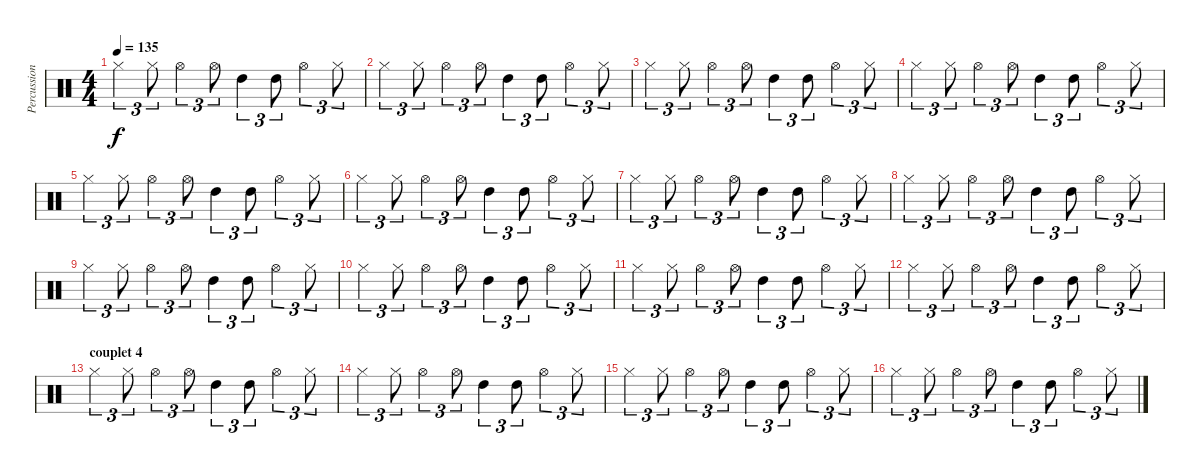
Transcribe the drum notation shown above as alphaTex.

\track ("Percussions" "Percussion") {instrument percussion}
\staff {score}
\articulation defaults
\ts (4 4)
\tempo 135
\clef neutral
\ks c "Hi-Hat (closed)".4{tu (3 2) dy f} "Hi-Hat (closed)".8{tu (3 2)} "Hi-Hat (open)".4{tu (3 2)} "Hi-Hat (open)".8{tu (3 2)} "High Tom (hit)".4{tu (3 2)} "High Tom (hit)".8{tu (3 2)} "Hi-Hat (open)".4{tu (3 2)} "Hi-Hat (closed)".8{tu (3 2)}
|
"Hi-Hat (closed)".4{tu (3 2)} "Hi-Hat (closed)".8{tu (3 2)} "Hi-Hat (open)".4{tu (3 2)} "Hi-Hat (open)".8{tu (3 2)} "High Tom (hit)".4{tu (3 2)} "High Tom (hit)".8{tu (3 2)} "Hi-Hat (open)".4{tu (3 2)} "Hi-Hat (closed)".8{tu (3 2)} |
"Hi-Hat (closed)".4{tu (3 2)} "Hi-Hat (closed)".8{tu (3 2)} "Hi-Hat (open)".4{tu (3 2)} "Hi-Hat (open)".8{tu (3 2)} "High Tom (hit)".4{tu (3 2)} "High Tom (hit)".8{tu (3 2)} "Hi-Hat (open)".4{tu (3 2)} "Hi-Hat (closed)".8{tu (3 2)} |
"Hi-Hat (closed)".4{tu (3 2)} "Hi-Hat (closed)".8{tu (3 2)} "Hi-Hat (open)".4{tu (3 2)} "Hi-Hat (open)".8{tu (3 2)} "High Tom (hit)".4{tu (3 2)} "High Tom (hit)".8{tu (3 2)} "Hi-Hat (open)".4{tu (3 2)} "Hi-Hat (closed)".8{tu (3 2)} |
"Hi-Hat (closed)".4{tu (3 2)} "Hi-Hat (closed)".8{tu (3 2)} "Hi-Hat (open)".4{tu (3 2)} "Hi-Hat (open)".8{tu (3 2)} "High Tom (hit)".4{tu (3 2)} "High Tom (hit)".8{tu (3 2)} "Hi-Hat (open)".4{tu (3 2)} "Hi-Hat (closed)".8{tu (3 2)} |
"Hi-Hat (closed)".4{tu (3 2)} "Hi-Hat (closed)".8{tu (3 2)} "Hi-Hat (open)".4{tu (3 2)} "Hi-Hat (open)".8{tu (3 2)} "High Tom (hit)".4{tu (3 2)} "High Tom (hit)".8{tu (3 2)} "Hi-Hat (open)".4{tu (3 2)} "Hi-Hat (closed)".8{tu (3 2)} |
"Hi-Hat (closed)".4{tu (3 2)} "Hi-Hat (closed)".8{tu (3 2)} "Hi-Hat (open)".4{tu (3 2)} "Hi-Hat (open)".8{tu (3 2)} "High Tom (hit)".4{tu (3 2)} "High Tom (hit)".8{tu (3 2)} "Hi-Hat (open)".4{tu (3 2)} "Hi-Hat (closed)".8{tu (3 2)} |
"Hi-Hat (closed)".4{tu (3 2)} "Hi-Hat (closed)".8{tu (3 2)} "Hi-Hat (open)".4{tu (3 2)} "Hi-Hat (open)".8{tu (3 2)} "High Tom (hit)".4{tu (3 2)} "High Tom (hit)".8{tu (3 2)} "Hi-Hat (open)".4{tu (3 2)} "Hi-Hat (closed)".8{tu (3 2)} |
"Hi-Hat (closed)".4{tu (3 2)} "Hi-Hat (closed)".8{tu (3 2)} "Hi-Hat (open)".4{tu (3 2)} "Hi-Hat (open)".8{tu (3 2)} "High Tom (hit)".4{tu (3 2)} "High Tom (hit)".8{tu (3 2)} "Hi-Hat (open)".4{tu (3 2)} "Hi-Hat (closed)".8{tu (3 2)} |
"Hi-Hat (closed)".4{tu (3 2)} "Hi-Hat (closed)".8{tu (3 2)} "Hi-Hat (open)".4{tu (3 2)} "Hi-Hat (open)".8{tu (3 2)} "High Tom (hit)".4{tu (3 2)} "High Tom (hit)".8{tu (3 2)} "Hi-Hat (open)".4{tu (3 2)} "Hi-Hat (closed)".8{tu (3 2)} |
"Hi-Hat (closed)".4{tu (3 2)} "Hi-Hat (closed)".8{tu (3 2)} "Hi-Hat (open)".4{tu (3 2)} "Hi-Hat (open)".8{tu (3 2)} "High Tom (hit)".4{tu (3 2)} "High Tom (hit)".8{tu (3 2)} "Hi-Hat (open)".4{tu (3 2)} "Hi-Hat (closed)".8{tu (3 2)} |
"Hi-Hat (closed)".4{tu (3 2)} "Hi-Hat (closed)".8{tu (3 2)} "Hi-Hat (open)".4{tu (3 2)} "Hi-Hat (open)".8{tu (3 2)} "High Tom (hit)".4{tu (3 2)} "High Tom (hit)".8{tu (3 2)} "Hi-Hat (open)".4{tu (3 2)} "Hi-Hat (closed)".8{tu (3 2)} |
\section ("" "couplet 4")
"Hi-Hat (closed)".4{tu (3 2)} "Hi-Hat (closed)".8{tu (3 2)} "Hi-Hat (open)".4{tu (3 2)} "Hi-Hat (open)".8{tu (3 2)} "High Tom (hit)".4{tu (3 2)} "High Tom (hit)".8{tu (3 2)} "Hi-Hat (open)".4{tu (3 2)} "Hi-Hat (closed)".8{tu (3 2)} |
"Hi-Hat (closed)".4{tu (3 2)} "Hi-Hat (closed)".8{tu (3 2)} "Hi-Hat (open)".4{tu (3 2)} "Hi-Hat (open)".8{tu (3 2)} "High Tom (hit)".4{tu (3 2)} "High Tom (hit)".8{tu (3 2)} "Hi-Hat (open)".4{tu (3 2)} "Hi-Hat (closed)".8{tu (3 2)} |
"Hi-Hat (closed)".4{tu (3 2)} "Hi-Hat (closed)".8{tu (3 2)} "Hi-Hat (open)".4{tu (3 2)} "Hi-Hat (open)".8{tu (3 2)} "High Tom (hit)".4{tu (3 2)} "High Tom (hit)".8{tu (3 2)} "Hi-Hat (open)".4{tu (3 2)} "Hi-Hat (closed)".8{tu (3 2)} |
"Hi-Hat (closed)".4{tu (3 2)} "Hi-Hat (closed)".8{tu (3 2)} "Hi-Hat (open)".4{tu (3 2)} "Hi-Hat (open)".8{tu (3 2)} "High Tom (hit)".4{tu (3 2)} "High Tom (hit)".8{tu (3 2)} "Hi-Hat (open)".4{tu (3 2)} "Hi-Hat (closed)".8{tu (3 2)}
